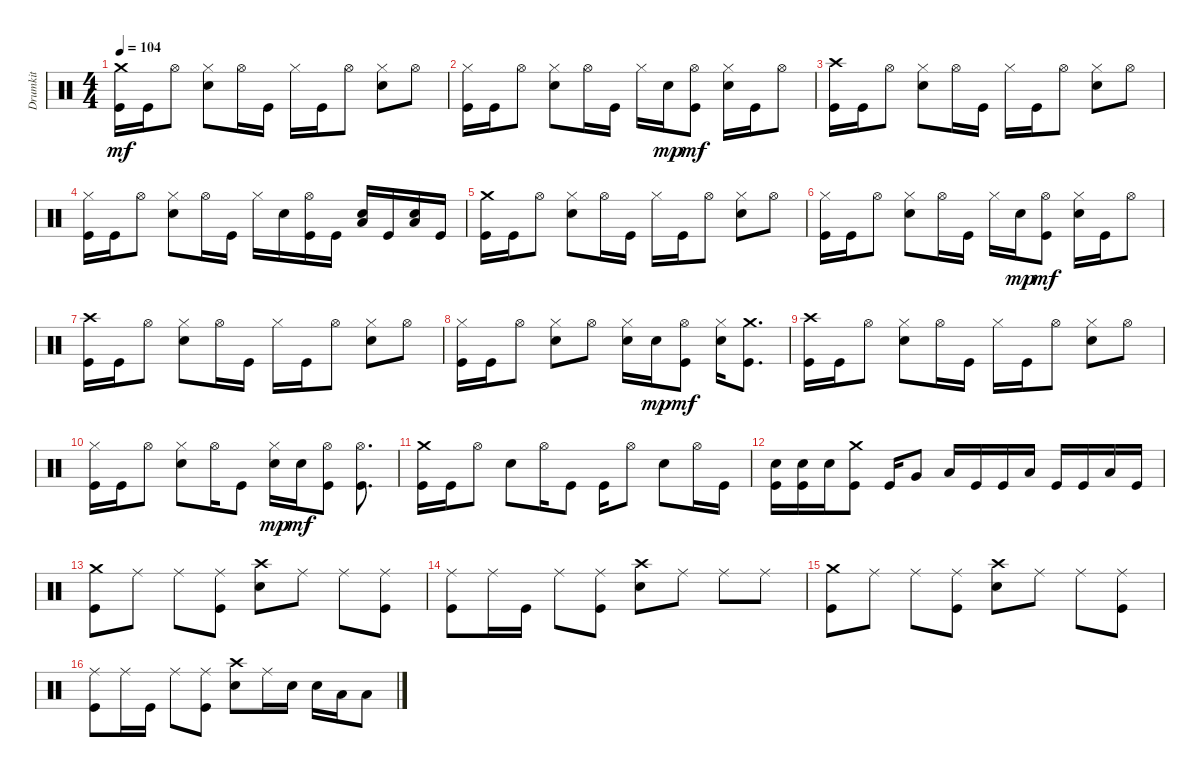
\track ("Drumkit" "Drumkit") {instrument percussion}
\staff {score}
\articulation defaults
\ts (4 4)
\tempo 104
\clef neutral
\ks c
("Crash medium (hit)" "Kick (hit)").16{dy mf} "Kick (hit)".16 "Hi-Hat (open)".8 ("Snare (hit) 2" "Hi-Hat (closed)").8 "Hi-Hat (open)".16 "Kick (hit)".16 "Hi-Hat (closed)".16 "Kick (hit)".16 "Hi-Hat (open)".8 ("Snare (hit) 2" "Hi-Hat (closed)").8 "Hi-Hat (open)".8 |
("Kick (hit)" "Hi-Hat (closed)").16 "Kick (hit)".16 "Hi-Hat (open)".8 ("Snare (hit) 2" "Hi-Hat (closed)").8 "Hi-Hat (open)".16 "Kick (hit)".16 "Hi-Hat (closed)".16 "Snare (hit) 2".16{dy mp} ("Hi-Hat (open)" "Kick (hit)").8{dy mf} ("Snare (hit) 2" "Hi-Hat (closed)").16 "Kick (hit)".16 "Hi-Hat (open)".8 |
("Kick (hit)" "Crash high (hit)").16 "Kick (hit)".16 "Hi-Hat (open)".8 ("Snare (hit) 2" "Hi-Hat (closed)").8 "Hi-Hat (open)".16 "Kick (hit)".16 "Hi-Hat (closed)".16 "Kick (hit)".16 "Hi-Hat (open)".8 ("Snare (hit) 2" "Hi-Hat (closed)").8 "Hi-Hat (open)".8 |
("Kick (hit)" "Hi-Hat (closed)").16 "Kick (hit)".16 "Hi-Hat (open)".8 ("Snare (hit) 2" "Hi-Hat (closed)").8 "Hi-Hat (open)".16 "Kick (hit)".16 "Hi-Hat (closed)".16 "Snare (hit) 2".16 ("Hi-Hat (open)" "Kick (hit)").16 "Kick (hit)".16 ("Snare (hit) 2" "Low Tom (hit)").16 "Kick (hit)".16 ("Snare (hit) 2" "Low Tom (hit)").16 "Kick (hit)".16 |
("Crash medium (hit)" "Kick (hit)").16 "Kick (hit)".16 "Hi-Hat (open)".8 ("Snare (hit) 2" "Hi-Hat (closed)").8 "Hi-Hat (open)".16 "Kick (hit)".16 "Hi-Hat (closed)".16 "Kick (hit)".16 "Hi-Hat (open)".8 ("Snare (hit) 2" "Hi-Hat (closed)").8 "Hi-Hat (open)".8 |
("Kick (hit)" "Hi-Hat (closed)").16 "Kick (hit)".16 "Hi-Hat (open)".8 ("Snare (hit) 2" "Hi-Hat (closed)").8 "Hi-Hat (open)".16 "Kick (hit)".16 "Hi-Hat (closed)".16 "Snare (hit) 2".16{dy mp} ("Hi-Hat (open)" "Kick (hit)").8{dy mf} ("Snare (hit) 2" "Hi-Hat (closed)").16 "Kick (hit)".16 "Hi-Hat (open)".8 |
("Kick (hit)" "Crash high (hit)").16 "Kick (hit)".16 "Hi-Hat (open)".8 ("Snare (hit) 2" "Hi-Hat (closed)").8 "Hi-Hat (open)".16 "Kick (hit)".16 "Hi-Hat (closed)".16 "Kick (hit)".16 "Hi-Hat (open)".8 ("Snare (hit) 2" "Hi-Hat (closed)").8 "Hi-Hat (open)".8 |
("Kick (hit)" "Hi-Hat (closed)").16 "Kick (hit)".16 "Hi-Hat (open)".8 ("Snare (hit) 2" "Hi-Hat (closed)").8 "Hi-Hat (open)".8 ("Hi-Hat (closed)" "Snare (hit) 2").16 "Snare (hit) 2".16{dy mp} ("Hi-Hat (open)" "Kick (hit)").8{dy mf} ("Snare (hit) 2" "Hi-Hat (closed)").16 ("Kick (hit)" "Crash medium (hit)").8{d} |
("Kick (hit)" "Crash high (hit)").16 "Kick (hit)".16 "Hi-Hat (open)".8 ("Snare (hit) 2" "Hi-Hat (closed)").8 "Hi-Hat (open)".16 "Kick (hit)".16 "Hi-Hat (closed)".16 "Kick (hit)".16 "Hi-Hat (open)".8 ("Snare (hit) 2" "Hi-Hat (closed)").8 "Hi-Hat (open)".8 |
("Kick (hit)" "Hi-Hat (closed)").16 "Kick (hit)".16 "Hi-Hat (open)".8 ("Snare (hit) 2" "Hi-Hat (closed)").8 "Hi-Hat (open)".16 "Kick (hit)".8 ("Snare (hit) 2" "Hi-Hat (closed)").16{dy mp} "Snare (hit) 2".16{dy mf} ("Hi-Hat (open)" "Kick (hit)").8 ("Hi-Hat (open)" "Kick (hit)").8{d} |
("Crash medium (hit)" "Kick (hit)").16 "Kick (hit)".16 "Hi-Hat (open)".8 "Snare (hit) 2".8 "Hi-Hat (open)".16 "Kick (hit)".8 "Kick (hit)".16 "Hi-Hat (open)".8 "Snare (hit) 2".8 "Hi-Hat (open)".16 "Kick (hit)".16 |
("Snare (hit) 2" "Kick (hit)").16 ("Snare (hit) 2" "Kick (hit)").16 "Snare (hit) 2".16 ("Crash medium (hit)" "Kick (hit)").8 "Kick (hit)".16 "Very Low Tom (hit)".8 "Low Tom (hit)".16 "Kick (hit)".16 "Kick (hit)".16 "Low Floor Tom (hit)".16 "Kick (hit)".16 "Kick (hit)".16 "Low Floor Tom (hit)".16 "Kick (hit)".16 |
("Kick (hit)" "Crash medium (hit)").8 "Ride (middle)".8 "Ride (middle)".8 ("Ride (middle)" "Kick (hit)").8 ("Snare (hit) 2" "Crash high (hit)").8 "Ride (middle)".8 "Ride (middle)".8 ("Ride (middle)" "Kick (hit)").8 |
("Ride (middle)" "Kick (hit)").8 "Ride (middle)".16 "Kick (hit)".16 "Ride (middle)".8 ("Ride (middle)" "Kick (hit)").8 ("Snare (hit) 2" "Crash high (hit)").8 "Ride (middle)".8 "Ride (middle)".8 "Ride (middle)".8 |
("Kick (hit)" "Crash medium (hit)").8 "Ride (middle)".8 "Ride (middle)".8 ("Ride (middle)" "Kick (hit)").8 ("Snare (hit) 2" "Crash high (hit)").8 "Ride (middle)".8 "Ride (middle)".8 ("Ride (middle)" "Kick (hit)").8 |
("Ride (middle)" "Kick (hit)").8 "Ride (middle)".16 "Kick (hit)".16 "Ride (middle)".8 ("Ride (middle)" "Kick (hit)").8 ("Snare (hit) 2" "Crash high (hit)").8 "Ride (middle)".16 "Snare (hit) 2".16 "Snare (hit) 2".16 "Low Tom (hit)".16 "Low Floor Tom (hit)".8
